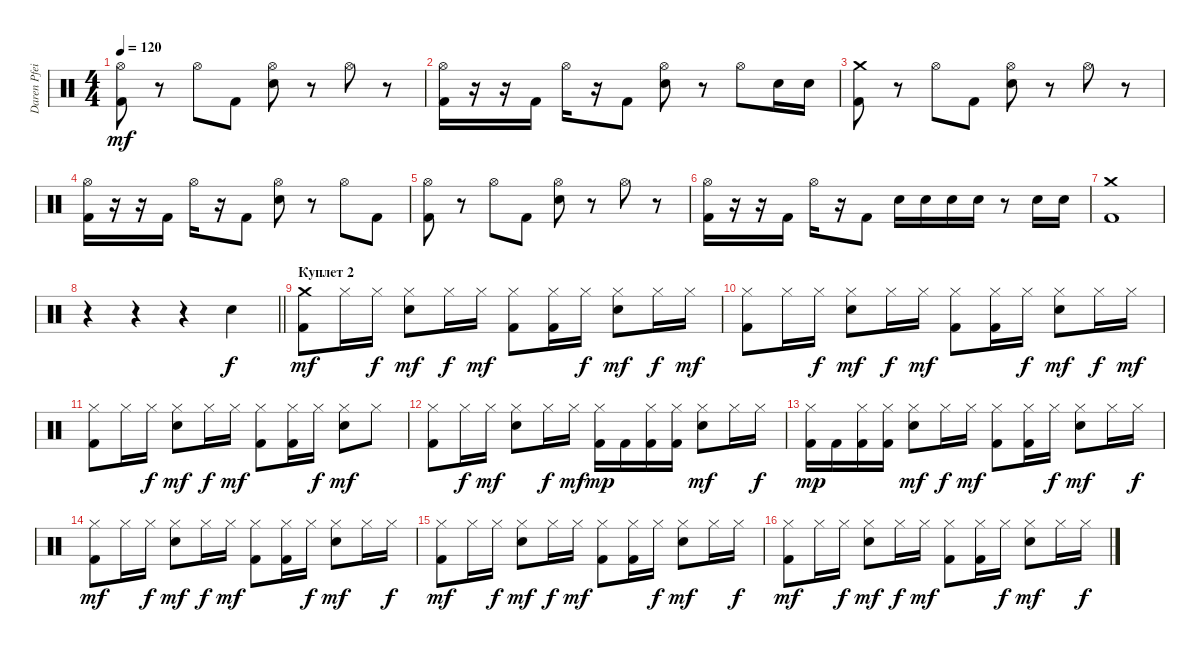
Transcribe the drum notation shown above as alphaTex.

\track ("Daren Pfeifer" "Daren Pfei") {instrument percussion}
\staff {score}
\articulation defaults
\ts (4 4)
\tempo 120
\clef neutral
\ks c
("Hi-Hat (open)" "Kick (hit) 2").8{dy mf} r.8 "Hi-Hat (open)".8 "Kick (hit) 2".8 ("Hi-Hat (open)" "Snare (hit) 2").8 r.8 "Hi-Hat (open)".8 r.8 |
("Hi-Hat (open)" "Kick (hit) 2").16 r.16 r.16 "Kick (hit) 2".16 "Hi-Hat (open)".16 r.16 "Kick (hit) 2".8 ("Hi-Hat (open)" "Snare (hit) 2").8 r.8 "Hi-Hat (open)".8 "Snare (hit) 2".16 "Snare (hit) 2".16 |
("Crash medium (hit)" "Kick (hit) 2").8 r.8 "Hi-Hat (open)".8 "Kick (hit) 2".8 ("Hi-Hat (open)" "Snare (hit) 2").8 r.8 "Hi-Hat (open)".8 r.8 |
("Hi-Hat (open)" "Kick (hit) 2").16 r.16 r.16 "Kick (hit) 2".16 "Hi-Hat (open)".16 r.16 "Kick (hit) 2".8 ("Hi-Hat (open)" "Snare (hit) 2").8 r.8 "Hi-Hat (open)".8 "Kick (hit) 2".8 |
("Hi-Hat (open)" "Kick (hit) 2").8 r.8 "Hi-Hat (open)".8 "Kick (hit) 2".8 ("Hi-Hat (open)" "Snare (hit) 2").8 r.8 "Hi-Hat (open)".8 r.8 |
("Hi-Hat (open)" "Kick (hit) 2").16 r.16 r.16 "Kick (hit) 2".16 "Hi-Hat (open)".16 r.16 "Kick (hit) 2".8 "Snare (hit) 2".16 "Snare (hit) 2".16 "Snare (hit) 2".16 "Snare (hit) 2".16 r.8 "Snare (hit) 2".16 "Snare (hit) 2".16 |
("Crash medium (hit)" "Kick (hit) 2").1 |
\barLineRight lightlight
r.4 r.4 r.4 "Snare (hit) 2".4{dy f} |
\section ("" "Куплет 2")
("Crash medium (hit)" "Kick (hit) 2").8{dy mf} "Hi-Hat (closed)".16 "Hi-Hat (closed)".16{dy f} ("Hi-Hat (closed)" "Snare (hit) 2").8{dy mf} "Hi-Hat (closed)".16{dy f} "Hi-Hat (closed)".16{dy mf} ("Hi-Hat (closed)" "Kick (hit) 2").8 ("Hi-Hat (closed)" "Kick (hit) 2").16 "Hi-Hat (closed)".16{dy f} ("Hi-Hat (closed)" "Snare (hit) 2").8{dy mf} "Hi-Hat (closed)".16{dy f} "Hi-Hat (closed)".16{dy mf} |
("Hi-Hat (closed)" "Kick (hit) 2").8 "Hi-Hat (closed)".16 "Hi-Hat (closed)".16{dy f} ("Hi-Hat (closed)" "Snare (hit) 2").8{dy mf} "Hi-Hat (closed)".16{dy f} "Hi-Hat (closed)".16{dy mf} ("Hi-Hat (closed)" "Kick (hit) 2").8 ("Hi-Hat (closed)" "Kick (hit) 2").16 "Hi-Hat (closed)".16{dy f} ("Hi-Hat (closed)" "Snare (hit) 2").8{dy mf} "Hi-Hat (closed)".16{dy f} "Hi-Hat (closed)".16{dy mf} |
("Hi-Hat (closed)" "Kick (hit) 2").8 "Hi-Hat (closed)".16 "Hi-Hat (closed)".16{dy f} ("Hi-Hat (closed)" "Snare (hit) 2").8{dy mf} "Hi-Hat (closed)".16{dy f} "Hi-Hat (closed)".16{dy mf} ("Hi-Hat (closed)" "Kick (hit) 2").8 ("Hi-Hat (closed)" "Kick (hit) 2").16 "Hi-Hat (closed)".16{dy f} ("Hi-Hat (closed)" "Snare (hit) 2").8{dy mf} "Hi-Hat (closed)".8 |
("Hi-Hat (closed)" "Kick (hit) 2").8 "Hi-Hat (closed)".16{dy f} "Hi-Hat (closed)".16{dy mf} ("Hi-Hat (closed)" "Snare (hit) 2").8 "Hi-Hat (closed)".16{dy f} "Hi-Hat (closed)".16{dy mf} ("Hi-Hat (closed)" "Kick (hit) 2").16{dy mp} "Kick (hit) 2".16 ("Hi-Hat (closed)" "Kick (hit) 2").16 ("Hi-Hat (closed)" "Kick (hit) 2").16 ("Hi-Hat (closed)" "Snare (hit) 2").8{dy mf} "Hi-Hat (closed)".16 "Hi-Hat (closed)".16{dy f} |
("Hi-Hat (closed)" "Kick (hit) 2").16{dy mp} "Kick (hit) 2".16 ("Hi-Hat (closed)" "Kick (hit) 2").16 ("Hi-Hat (closed)" "Kick (hit) 2").16 ("Hi-Hat (closed)" "Snare (hit) 2").8{dy mf} "Hi-Hat (closed)".16{dy f} "Hi-Hat (closed)".16{dy mf} ("Hi-Hat (closed)" "Kick (hit) 2").8 ("Hi-Hat (closed)" "Kick (hit) 2").16 "Hi-Hat (closed)".16{dy f} ("Hi-Hat (closed)" "Snare (hit) 2").8{dy mf} "Hi-Hat (closed)".16 "Hi-Hat (closed)".16{dy f} |
("Hi-Hat (closed)" "Kick (hit) 2").8{dy mf} "Hi-Hat (closed)".16 "Hi-Hat (closed)".16{dy f} ("Hi-Hat (closed)" "Snare (hit) 2").8{dy mf} "Hi-Hat (closed)".16{dy f} "Hi-Hat (closed)".16{dy mf} ("Hi-Hat (closed)" "Kick (hit) 2").8 ("Hi-Hat (closed)" "Kick (hit) 2").16 "Hi-Hat (closed)".16{dy f} ("Hi-Hat (closed)" "Snare (hit) 2").8{dy mf} "Hi-Hat (closed)".16 "Hi-Hat (closed)".16{dy f} |
("Hi-Hat (closed)" "Kick (hit) 2").8{dy mf} "Hi-Hat (closed)".16 "Hi-Hat (closed)".16{dy f} ("Hi-Hat (closed)" "Snare (hit) 2").8{dy mf} "Hi-Hat (closed)".16{dy f} "Hi-Hat (closed)".16{dy mf} ("Hi-Hat (closed)" "Kick (hit) 2").8 ("Hi-Hat (closed)" "Kick (hit) 2").16 "Hi-Hat (closed)".16{dy f} ("Hi-Hat (closed)" "Snare (hit) 2").8{dy mf} "Hi-Hat (closed)".16 "Hi-Hat (closed)".16{dy f} |
("Hi-Hat (closed)" "Kick (hit) 2").8{dy mf} "Hi-Hat (closed)".16 "Hi-Hat (closed)".16{dy f} ("Hi-Hat (closed)" "Snare (hit) 2").8{dy mf} "Hi-Hat (closed)".16{dy f} "Hi-Hat (closed)".16{dy mf} ("Hi-Hat (closed)" "Kick (hit) 2").8 ("Hi-Hat (closed)" "Kick (hit) 2").16 "Hi-Hat (closed)".16{dy f} ("Hi-Hat (closed)" "Snare (hit) 2").8{dy mf} "Hi-Hat (closed)".16 "Hi-Hat (closed)".16{dy f}
